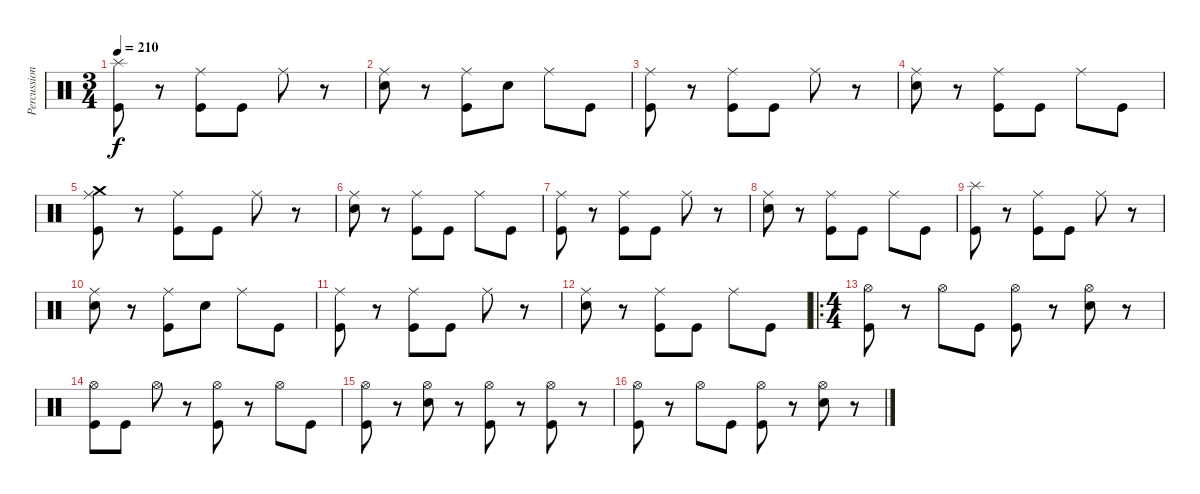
\track ("Percussion" "Percussion") {instrument percussion}
\staff {score}
\articulation defaults
\ts (3 4)
\tempo 210
\clef neutral
\ks c
("Splash (hit)" "Kick (hit)").8{dy f} r.8 ("Ride (middle)" "Kick (hit)").8 "Kick (hit)".8 "Ride (middle)".8 r.8 |
("Ride (middle)" "Electric Snare (hit)").8 r.8 ("Ride (middle)" "Kick (hit)").8 "Electric Snare (hit)".8 "Ride (middle)".8 "Kick (hit)".8 |
("Ride (middle)" "Kick (hit)").8 r.8 ("Ride (middle)" "Kick (hit)").8 "Kick (hit)".8 "Ride (middle)".8 r.8 |
("Ride (middle)" "Electric Snare (hit)").8 r.8 ("Ride (middle)" "Kick (hit)").8 "Kick (hit)".8 "Ride (middle)".8 "Kick (hit)".8 |
("Crash medium (hit)" "Ride (middle)" "Kick (hit)").8 r.8 ("Ride (middle)" "Kick (hit)").8 "Kick (hit)".8 "Ride (middle)".8 r.8 |
("Ride (middle)" "Electric Snare (hit)").8 r.8 ("Ride (middle)" "Kick (hit)").8 "Kick (hit)".8 "Ride (middle)".8 "Kick (hit)".8 |
("Ride (middle)" "Kick (hit)").8 r.8 ("Ride (middle)" "Kick (hit)").8 "Kick (hit)".8 "Ride (middle)".8 r.8 |
("Ride (middle)" "Electric Snare (hit)").8 r.8 ("Ride (middle)" "Kick (hit)").8 "Kick (hit)".8 "Ride (middle)".8 "Kick (hit)".8 |
("Splash (hit)" "Kick (hit)").8 r.8 ("Ride (middle)" "Kick (hit)").8 "Kick (hit)".8 "Ride (middle)".8 r.8 |
("Ride (middle)" "Electric Snare (hit)").8 r.8 ("Ride (middle)" "Kick (hit)").8 "Electric Snare (hit)".8 "Ride (middle)".8 "Kick (hit)".8 |
("Ride (middle)" "Kick (hit)").8 r.8 ("Ride (middle)" "Kick (hit)").8 "Kick (hit)".8 "Ride (middle)".8 r.8 |
("Ride (middle)" "Electric Snare (hit)").8 r.8 ("Ride (middle)" "Kick (hit)").8 "Kick (hit)".8 "Ride (middle)".8 "Kick (hit)".8 |
\ro
\ts (4 4)
("Hi-Hat (open)" "Kick (hit)").8 r.8 "Hi-Hat (open)".8 "Kick (hit)".8 ("Hi-Hat (open)" "Kick (hit)").8 r.8 ("Hi-Hat (open)" "Electric Snare (hit)").8 r.8 |
("Hi-Hat (open)" "Kick (hit)").8 "Kick (hit)".8 "Hi-Hat (open)".8 r.8 ("Hi-Hat (open)" "Kick (hit)").8 r.8 "Hi-Hat (open)".8 "Kick (hit)".8 |
("Hi-Hat (open)" "Kick (hit)").8 r.8 ("Hi-Hat (open)" "Electric Snare (hit)").8 r.8 ("Hi-Hat (open)" "Kick (hit)").8 r.8 ("Hi-Hat (open)" "Kick (hit)").8 r.8 |
("Hi-Hat (open)" "Kick (hit)").8 r.8 "Hi-Hat (open)".8 "Kick (hit)".8 ("Hi-Hat (open)" "Kick (hit)").8 r.8 ("Hi-Hat (open)" "Electric Snare (hit)").8 r.8
